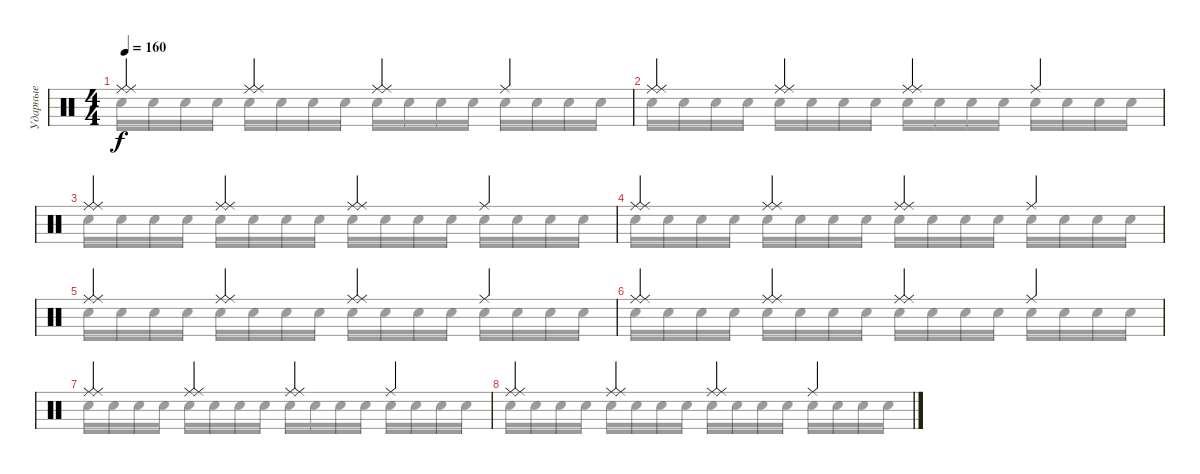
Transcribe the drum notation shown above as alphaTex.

\track ("Ударные" "Ударные") {instrument percussion}
\staff {score}
\articulation defaults
\voice
\ts (4 4)
\tempo 160
\clef neutral
\ks c
("Ride (middle)" "Ride (middle)").4{dy f} ("Ride (middle)" "Ride (middle)").4 ("Ride (middle)" "Ride (middle)").4 "Ride (middle)".4 |
("Ride (middle)" "Ride (middle)").4 ("Ride (middle)" "Ride (middle)").4 ("Ride (middle)" "Ride (middle)").4 "Ride (middle)".4 |
("Ride (middle)" "Ride (middle)").4 ("Ride (middle)" "Ride (middle)").4 ("Ride (middle)" "Ride (middle)").4 "Ride (middle)".4 |
("Ride (middle)" "Ride (middle)").4 ("Ride (middle)" "Ride (middle)").4 ("Ride (middle)" "Ride (middle)").4 "Ride (middle)".4 |
("Ride (middle)" "Ride (middle)").4 ("Ride (middle)" "Ride (middle)").4 ("Ride (middle)" "Ride (middle)").4 "Ride (middle)".4 |
("Ride (middle)" "Ride (middle)").4 ("Ride (middle)" "Ride (middle)").4 ("Ride (middle)" "Ride (middle)").4 "Ride (middle)".4 |
("Ride (middle)" "Ride (middle)").4 ("Ride (middle)" "Ride (middle)").4 ("Ride (middle)" "Ride (middle)").4 "Ride (middle)".4 |
("Ride (middle)" "Ride (middle)").4 ("Ride (middle)" "Ride (middle)").4 ("Ride (middle)" "Ride (middle)").4 "Ride (middle)".4
\voice
\clef neutral
\ottava regular
\simile none
\ks c "Snare (hit) 2".16{dy f} "Snare (hit) 2".16 "Snare (hit) 2".16 "Snare (hit) 2".16 "Snare (hit) 2".16 "Snare (hit) 2".16 "Snare (hit) 2".16 "Snare (hit) 2".16 "Snare (hit) 2".16 "Snare (hit) 2".16 "Snare (hit) 2".16 "Snare (hit) 2".16 "Snare (hit) 2".16 "Snare (hit) 2".16 "Snare (hit) 2".16 "Snare (hit) 2".16
|
"Snare (hit) 2".16 "Snare (hit) 2".16 "Snare (hit) 2".16 "Snare (hit) 2".16 "Snare (hit) 2".16 "Snare (hit) 2".16 "Snare (hit) 2".16 "Snare (hit) 2".16 "Snare (hit) 2".16 "Snare (hit) 2".16 "Snare (hit) 2".16 "Snare (hit) 2".16 "Snare (hit) 2".16 "Snare (hit) 2".16 "Snare (hit) 2".16 "Snare (hit) 2".16 |
"Snare (hit) 2".16 "Snare (hit) 2".16 "Snare (hit) 2".16 "Snare (hit) 2".16 "Snare (hit) 2".16 "Snare (hit) 2".16 "Snare (hit) 2".16 "Snare (hit) 2".16 "Snare (hit) 2".16 "Snare (hit) 2".16 "Snare (hit) 2".16 "Snare (hit) 2".16 "Snare (hit) 2".16 "Snare (hit) 2".16 "Snare (hit) 2".16 "Snare (hit) 2".16 |
"Snare (hit) 2".16 "Snare (hit) 2".16 "Snare (hit) 2".16 "Snare (hit) 2".16 "Snare (hit) 2".16 "Snare (hit) 2".16 "Snare (hit) 2".16 "Snare (hit) 2".16 "Snare (hit) 2".16 "Snare (hit) 2".16 "Snare (hit) 2".16 "Snare (hit) 2".16 "Snare (hit) 2".16 "Snare (hit) 2".16 "Snare (hit) 2".16 "Snare (hit) 2".16 |
"Snare (hit) 2".16 "Snare (hit) 2".16 "Snare (hit) 2".16 "Snare (hit) 2".16 "Snare (hit) 2".16 "Snare (hit) 2".16 "Snare (hit) 2".16 "Snare (hit) 2".16 "Snare (hit) 2".16 "Snare (hit) 2".16 "Snare (hit) 2".16 "Snare (hit) 2".16 "Snare (hit) 2".16 "Snare (hit) 2".16 "Snare (hit) 2".16 "Snare (hit) 2".16 |
"Snare (hit) 2".16 "Snare (hit) 2".16 "Snare (hit) 2".16 "Snare (hit) 2".16 "Snare (hit) 2".16 "Snare (hit) 2".16 "Snare (hit) 2".16 "Snare (hit) 2".16 "Snare (hit) 2".16 "Snare (hit) 2".16 "Snare (hit) 2".16 "Snare (hit) 2".16 "Snare (hit) 2".16 "Snare (hit) 2".16 "Snare (hit) 2".16 "Snare (hit) 2".16 |
"Snare (hit) 2".16 "Snare (hit) 2".16 "Snare (hit) 2".16 "Snare (hit) 2".16 "Snare (hit) 2".16 "Snare (hit) 2".16 "Snare (hit) 2".16 "Snare (hit) 2".16 "Snare (hit) 2".16 "Snare (hit) 2".16 "Snare (hit) 2".16 "Snare (hit) 2".16 "Snare (hit) 2".16 "Snare (hit) 2".16 "Snare (hit) 2".16 "Snare (hit) 2".16 |
"Snare (hit) 2".16 "Snare (hit) 2".16 "Snare (hit) 2".16 "Snare (hit) 2".16 "Snare (hit) 2".16 "Snare (hit) 2".16 "Snare (hit) 2".16 "Snare (hit) 2".16 "Snare (hit) 2".16 "Snare (hit) 2".16 "Snare (hit) 2".16 "Snare (hit) 2".16 "Snare (hit) 2".16 "Snare (hit) 2".16 "Snare (hit) 2".16 "Snare (hit) 2".16
